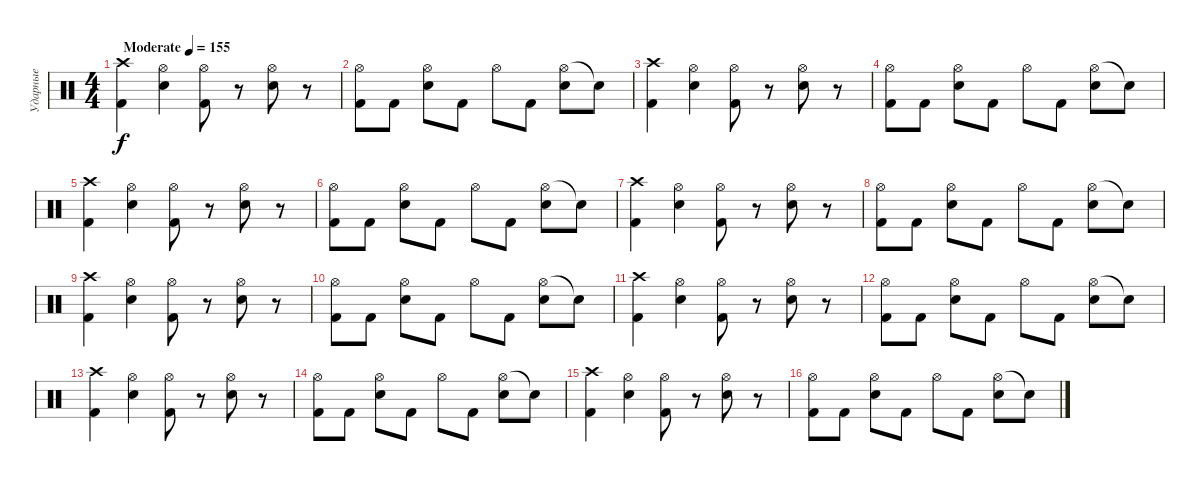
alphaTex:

\track ("Ударные" "Ударные") {instrument percussion}
\staff {score}
\articulation defaults
\ts (4 4)
\tempo (155 "Moderate")
\clef neutral
\ks c
("Crash high (hit)" "Kick (hit) 2").4{dy f} ("Hi-Hat (open)" "Electric Snare (hit)").4 ("Hi-Hat (open)" "Kick (hit) 2").8 r.8 ("Hi-Hat (open)" "Electric Snare (hit)").8 r.8 |
("Hi-Hat (open)" "Kick (hit) 2").8 "Kick (hit) 2".8 ("Hi-Hat (open)" "Electric Snare (hit)").8 "Kick (hit) 2".8 "Hi-Hat (open)".8 "Kick (hit) 2".8 ("Hi-Hat (open)" "Electric Snare (hit)").8 "Snare (hit)"{t}.8 |
("Crash high (hit)" "Kick (hit) 2").4 ("Hi-Hat (open)" "Electric Snare (hit)").4 ("Hi-Hat (open)" "Kick (hit) 2").8 r.8 ("Hi-Hat (open)" "Electric Snare (hit)").8 r.8 |
("Hi-Hat (open)" "Kick (hit) 2").8 "Kick (hit) 2".8 ("Hi-Hat (open)" "Electric Snare (hit)").8 "Kick (hit) 2".8 "Hi-Hat (open)".8 "Kick (hit) 2".8 ("Hi-Hat (open)" "Electric Snare (hit)").8 "Snare (hit)"{t}.8 |
("Crash high (hit)" "Kick (hit) 2").4 ("Hi-Hat (open)" "Electric Snare (hit)").4 ("Hi-Hat (open)" "Kick (hit) 2").8 r.8 ("Hi-Hat (open)" "Electric Snare (hit)").8 r.8 |
("Hi-Hat (open)" "Kick (hit) 2").8 "Kick (hit) 2".8 ("Hi-Hat (open)" "Electric Snare (hit)").8 "Kick (hit) 2".8 "Hi-Hat (open)".8 "Kick (hit) 2".8 ("Hi-Hat (open)" "Electric Snare (hit)").8 "Snare (hit)"{t}.8 |
("Crash high (hit)" "Kick (hit) 2").4 ("Hi-Hat (open)" "Electric Snare (hit)").4 ("Hi-Hat (open)" "Kick (hit) 2").8 r.8 ("Hi-Hat (open)" "Electric Snare (hit)").8 r.8 |
("Hi-Hat (open)" "Kick (hit) 2").8 "Kick (hit) 2".8 ("Hi-Hat (open)" "Electric Snare (hit)").8 "Kick (hit) 2".8 "Hi-Hat (open)".8 "Kick (hit) 2".8 ("Hi-Hat (open)" "Electric Snare (hit)").8 "Snare (hit)"{t}.8 |
("Crash high (hit)" "Kick (hit) 2").4 ("Hi-Hat (open)" "Electric Snare (hit)").4 ("Hi-Hat (open)" "Kick (hit) 2").8 r.8 ("Hi-Hat (open)" "Electric Snare (hit)").8 r.8 |
("Hi-Hat (open)" "Kick (hit) 2").8 "Kick (hit) 2".8 ("Hi-Hat (open)" "Electric Snare (hit)").8 "Kick (hit) 2".8 "Hi-Hat (open)".8 "Kick (hit) 2".8 ("Hi-Hat (open)" "Electric Snare (hit)").8 "Snare (hit)"{t}.8 |
("Crash high (hit)" "Kick (hit) 2").4 ("Hi-Hat (open)" "Electric Snare (hit)").4 ("Hi-Hat (open)" "Kick (hit) 2").8 r.8 ("Hi-Hat (open)" "Electric Snare (hit)").8 r.8 |
("Hi-Hat (open)" "Kick (hit) 2").8 "Kick (hit) 2".8 ("Hi-Hat (open)" "Electric Snare (hit)").8 "Kick (hit) 2".8 "Hi-Hat (open)".8 "Kick (hit) 2".8 ("Hi-Hat (open)" "Electric Snare (hit)").8 "Snare (hit)"{t}.8 |
("Crash high (hit)" "Kick (hit) 2").4 ("Hi-Hat (open)" "Electric Snare (hit)").4 ("Hi-Hat (open)" "Kick (hit) 2").8 r.8 ("Hi-Hat (open)" "Electric Snare (hit)").8 r.8 |
("Hi-Hat (open)" "Kick (hit) 2").8 "Kick (hit) 2".8 ("Hi-Hat (open)" "Electric Snare (hit)").8 "Kick (hit) 2".8 "Hi-Hat (open)".8 "Kick (hit) 2".8 ("Hi-Hat (open)" "Electric Snare (hit)").8 "Snare (hit)"{t}.8 |
("Crash high (hit)" "Kick (hit) 2").4 ("Hi-Hat (open)" "Electric Snare (hit)").4 ("Hi-Hat (open)" "Kick (hit) 2").8 r.8 ("Hi-Hat (open)" "Electric Snare (hit)").8 r.8 |
("Hi-Hat (open)" "Kick (hit) 2").8 "Kick (hit) 2".8 ("Hi-Hat (open)" "Electric Snare (hit)").8 "Kick (hit) 2".8 "Hi-Hat (open)".8 "Kick (hit) 2".8 ("Hi-Hat (open)" "Electric Snare (hit)").8 "Snare (hit)"{t}.8
